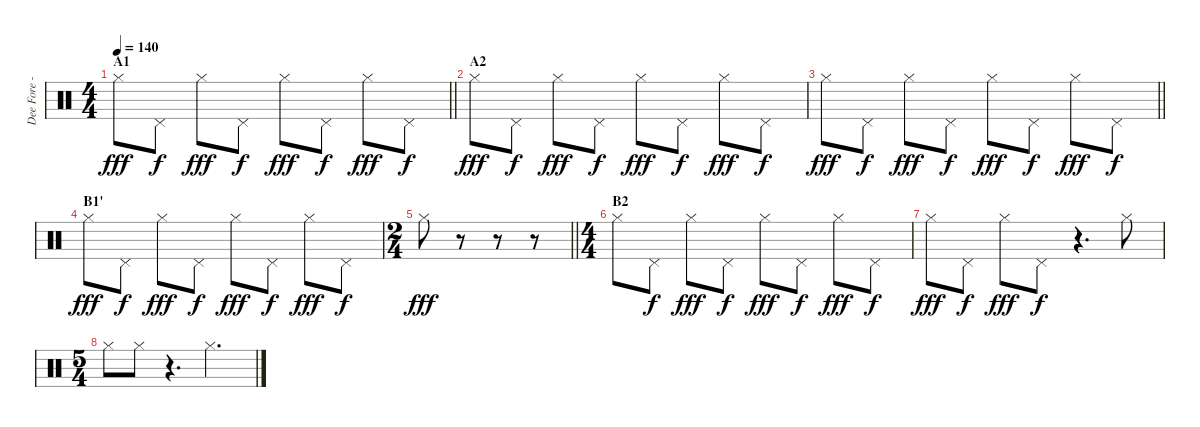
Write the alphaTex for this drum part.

\track ("Dee Fore - Drums" "Dee Fore -") {instrument percussion}
\staff {score}
\articulation defaults
\ts (4 4)
\section ("" "A1")
\tempo 140
\clef neutral
\barLineRight lightlight
\ks c "Hi-Hat (closed)".8{dy fff} "Pedal Hi-Hat (hit)".8{dy f} "Hi-Hat (closed)".8{dy fff} "Pedal Hi-Hat (hit)".8{dy f} "Hi-Hat (closed)".8{dy fff} "Pedal Hi-Hat (hit)".8{dy f} "Hi-Hat (closed)".8{dy fff} "Pedal Hi-Hat (hit)".8{dy f}
|
\section ("" "A2")
"Hi-Hat (closed)".8{dy fff} "Pedal Hi-Hat (hit)".8{dy f} "Hi-Hat (closed)".8{dy fff} "Pedal Hi-Hat (hit)".8{dy f} "Hi-Hat (closed)".8{dy fff} "Pedal Hi-Hat (hit)".8{dy f} "Hi-Hat (closed)".8{dy fff} "Pedal Hi-Hat (hit)".8{dy f} |
\barLineRight lightlight "Hi-Hat (closed)".8{dy fff} "Pedal Hi-Hat (hit)".8{dy f} "Hi-Hat (closed)".8{dy fff} "Pedal Hi-Hat (hit)".8{dy f} "Hi-Hat (closed)".8{dy fff} "Pedal Hi-Hat (hit)".8{dy f} "Hi-Hat (closed)".8{dy fff} "Pedal Hi-Hat (hit)".8{dy f}
|
\section ("" "B1'")
"Hi-Hat (closed)".8{dy fff} "Pedal Hi-Hat (hit)".8{dy f} "Hi-Hat (closed)".8{dy fff} "Pedal Hi-Hat (hit)".8{dy f} "Hi-Hat (closed)".8{dy fff} "Pedal Hi-Hat (hit)".8{dy f} "Hi-Hat (closed)".8{dy fff} "Pedal Hi-Hat (hit)".8{dy f} |
\ts (2 4)
\barLineRight lightlight "Hi-Hat (closed)".8{dy fff}
r.8 r.8 r.8 |
\ts (4 4)
\section ("" "B2")
"Hi-Hat (closed)".8 "Pedal Hi-Hat (hit)".8{dy f} "Hi-Hat (closed)".8{dy fff} "Pedal Hi-Hat (hit)".8{dy f} "Hi-Hat (closed)".8{dy fff} "Pedal Hi-Hat (hit)".8{dy f} "Hi-Hat (closed)".8{dy fff} "Pedal Hi-Hat (hit)".8{dy f} |
"Hi-Hat (closed)".8{dy fff} "Pedal Hi-Hat (hit)".8{dy f} "Hi-Hat (closed)".8{dy fff} "Pedal Hi-Hat (hit)".8{dy f} r.4{d} "Hi-Hat (closed)".8 |
\ts (5 4)
"Hi-Hat (closed)".8 "Hi-Hat (closed)".8 r.4{d} "Hi-Hat (closed)".2{d}
